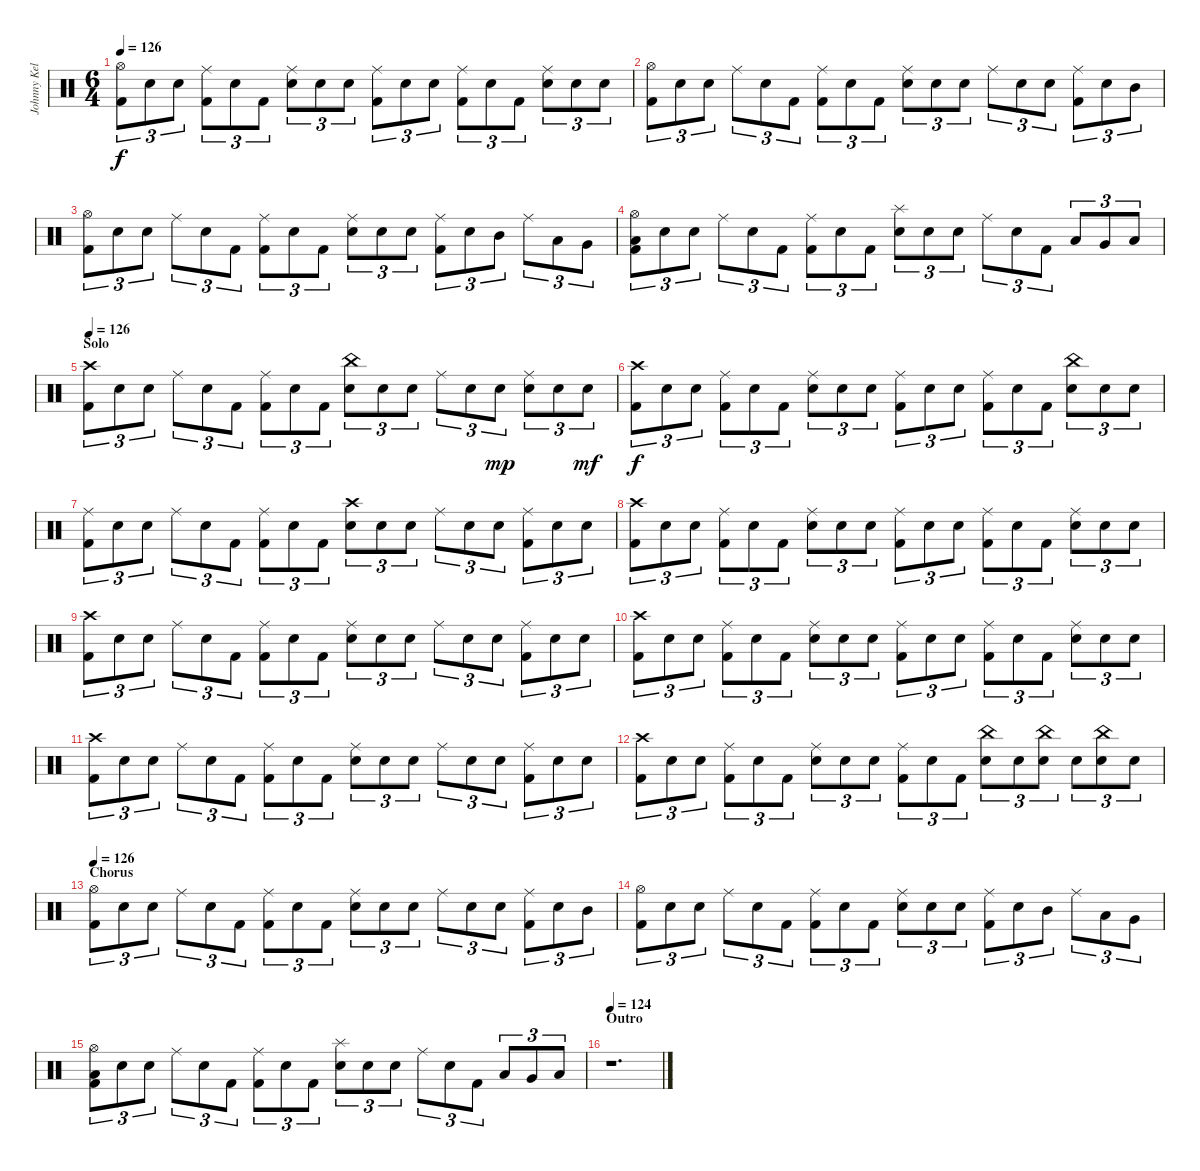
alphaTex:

\track ("Johnny Kelly - Drums" "Johnny Kel") {instrument percussion}
\staff {score}
\articulation defaults
\ts (6 4)
\tempo 126
\clef neutral
\ks c
("Hi-Hat (open)" "Kick (hit) 2").8{tu (3 2) dy f} "Snare (hit)".8{tu (3 2)} "Electric Snare (hit)".8{tu (3 2)} ("Ride (middle)" "Kick (hit) 2").8{tu (3 2)} "Snare (hit)".8{tu (3 2)} "Kick (hit) 2".8{tu (3 2)} ("Ride (middle)" "Electric Snare (hit)").8{tu (3 2)} "Snare (hit)".8{tu (3 2)} "Electric Snare (hit)".8{tu (3 2)} ("Ride (middle)" "Kick (hit) 2").8{tu (3 2)} "Snare (hit)".8{tu (3 2)} "Electric Snare (hit)".8{tu (3 2)} ("Ride (middle)" "Kick (hit) 2").8{tu (3 2)} "Snare (hit)".8{tu (3 2)} "Kick (hit) 2".8{tu (3 2)} ("Ride (middle)" "Electric Snare (hit)").8{tu (3 2)} "Snare (hit)".8{tu (3 2)} "Electric Snare (hit)".8{tu (3 2)} |
("Hi-Hat (open)" "Kick (hit) 2").8{tu (3 2)} "Snare (hit)".8{tu (3 2)} "Snare (hit)".8{tu (3 2)} "Ride (middle)".8{tu (3 2)} "Snare (hit)".8{tu (3 2)} "Kick (hit) 2".8{tu (3 2)} ("Ride (middle)" "Kick (hit) 2").8{tu (3 2)} "Snare (hit)".8{tu (3 2)} "Kick (hit) 2".8{tu (3 2)} ("Ride (middle)" "Electric Snare (hit)").8{tu (3 2)} "Snare (hit)".8{tu (3 2)} "Snare (hit)".8{tu (3 2)} "Ride (middle)".8{tu (3 2)} "Snare (hit)".8{tu (3 2)} "Electric Snare (hit)".8{tu (3 2)} ("Ride (middle)" "Kick (hit) 2").8{tu (3 2)} "Snare (hit)".8{tu (3 2)} "Mid Tom (hit)".8{tu (3 2)} |
("Hi-Hat (open)" "Kick (hit) 2").8{tu (3 2)} "Snare (hit)".8{tu (3 2)} "Snare (hit)".8{tu (3 2)} "Ride (middle)".8{tu (3 2)} "Snare (hit)".8{tu (3 2)} "Kick (hit) 2".8{tu (3 2)} ("Ride (middle)" "Kick (hit) 2").8{tu (3 2)} "Snare (hit)".8{tu (3 2)} "Kick (hit) 2".8{tu (3 2)} ("Ride (middle)" "Electric Snare (hit)").8{tu (3 2)} "Snare (hit)".8{tu (3 2)} "Electric Snare (hit)".8{tu (3 2)} ("Ride (middle)" "Kick (hit) 2").8{tu (3 2)} "Snare (hit)".8{tu (3 2)} "Mid Tom (hit)".8{tu (3 2)} "Ride (middle)".8{tu (3 2)} "Low Tom (hit)".8{tu (3 2)} "Very Low Tom (hit)".8{tu (3 2)} |
("Hi-Hat (open)" "Low Floor Tom (hit)" "Kick (hit) 2").8{tu (3 2)} "Snare (hit)".8{tu (3 2)} "Snare (hit)".8{tu (3 2)} "Ride (middle)".8{tu (3 2)} "Snare (hit)".8{tu (3 2)} "Kick (hit) 2".8{tu (3 2)} ("Ride (middle)" "Kick (hit) 2").8{tu (3 2)} "Snare (hit)".8{tu (3 2)} "Kick (hit) 2".8{tu (3 2)} ("Splash (hit)" "Electric Snare (hit)").8{tu (3 2)} "Snare (hit)".8{tu (3 2)} "Snare (hit)".8{tu (3 2)} "Ride (middle)".8{tu (3 2)} "Electric Snare (hit)".8{tu (3 2)} "Kick (hit) 2".8{tu (3 2)} "Low Tom (hit)".8{tu (3 2)} "Very Low Tom (hit)".8{tu (3 2)} "Low Floor Tom (hit)".8{tu (3 2)} |
\section ("" "Solo")
\tempo 126
("Crash high (hit)" "Kick (hit) 2").8{tu (3 2) volume 16 balance 8} "Snare (hit)".8{tu (3 2)} "Snare (hit)".8{tu (3 2)} "Ride (middle)".8{tu (3 2)} "Snare (hit)".8{tu (3 2)} "Kick (hit) 2".8{tu (3 2)} ("Ride (middle)" "Kick (hit) 2").8{tu (3 2)} "Snare (hit)".8{tu (3 2)} "Kick (hit) 2".8{tu (3 2)} ("China (hit)" "Electric Snare (hit)").8{tu (3 2)} "Snare (hit)".8{tu (3 2)} "Snare (hit)".8{tu (3 2)} "Ride (middle)".8{tu (3 2)} "Snare (hit)".8{tu (3 2)} "Electric Snare (hit)".8{tu (3 2) dy mp} ("Ride (middle)" "Electric Snare (hit)").8{tu (3 2)} "Electric Snare (hit)".8{tu (3 2)} "Electric Snare (hit)".8{tu (3 2) dy mf} |
("Crash high (hit)" "Kick (hit) 2").8{tu (3 2) dy f} "Snare (hit)".8{tu (3 2)} "Electric Snare (hit)".8{tu (3 2)} ("Ride (middle)" "Kick (hit) 2").8{tu (3 2)} "Snare (hit)".8{tu (3 2)} "Kick (hit) 2".8{tu (3 2)} ("Ride (middle)" "Electric Snare (hit)").8{tu (3 2)} "Snare (hit)".8{tu (3 2)} "Electric Snare (hit)".8{tu (3 2)} ("Ride (middle)" "Kick (hit) 2").8{tu (3 2)} "Snare (hit)".8{tu (3 2)} "Electric Snare (hit)".8{tu (3 2)} ("Ride (middle)" "Kick (hit) 2").8{tu (3 2)} "Snare (hit)".8{tu (3 2)} "Kick (hit) 2".8{tu (3 2)} ("China (hit)" "Electric Snare (hit)").8{tu (3 2)} "Snare (hit)".8{tu (3 2)} "Electric Snare (hit)".8{tu (3 2)} |
("Ride (middle)" "Kick (hit) 2").8{tu (3 2)} "Snare (hit)".8{tu (3 2)} "Snare (hit)".8{tu (3 2)} "Ride (middle)".8{tu (3 2)} "Snare (hit)".8{tu (3 2)} "Kick (hit) 2".8{tu (3 2)} ("Ride (middle)" "Kick (hit) 2").8{tu (3 2)} "Snare (hit)".8{tu (3 2)} "Kick (hit) 2".8{tu (3 2)} ("Crash high (hit)" "Electric Snare (hit)").8{tu (3 2)} "Snare (hit)".8{tu (3 2)} "Snare (hit)".8{tu (3 2)} "Ride (middle)".8{tu (3 2)} "Snare (hit)".8{tu (3 2)} "Electric Snare (hit)".8{tu (3 2)} ("Ride (middle)" "Kick (hit) 2").8{tu (3 2)} "Snare (hit)".8{tu (3 2)} "Electric Snare (hit)".8{tu (3 2)} |
("Crash high (hit)" "Kick (hit) 2").8{tu (3 2)} "Snare (hit)".8{tu (3 2)} "Electric Snare (hit)".8{tu (3 2)} ("Ride (middle)" "Kick (hit) 2").8{tu (3 2)} "Snare (hit)".8{tu (3 2)} "Kick (hit) 2".8{tu (3 2)} ("Ride (middle)" "Electric Snare (hit)").8{tu (3 2)} "Snare (hit)".8{tu (3 2)} "Electric Snare (hit)".8{tu (3 2)} ("Ride (middle)" "Kick (hit) 2").8{tu (3 2)} "Snare (hit)".8{tu (3 2)} "Electric Snare (hit)".8{tu (3 2)} ("Ride (middle)" "Kick (hit) 2").8{tu (3 2)} "Snare (hit)".8{tu (3 2)} "Kick (hit) 2".8{tu (3 2)} ("Ride (middle)" "Electric Snare (hit)").8{tu (3 2)} "Snare (hit)".8{tu (3 2)} "Electric Snare (hit)".8{tu (3 2)} |
("Crash high (hit)" "Kick (hit) 2").8{tu (3 2)} "Snare (hit)".8{tu (3 2)} "Snare (hit)".8{tu (3 2)} "Ride (middle)".8{tu (3 2)} "Snare (hit)".8{tu (3 2)} "Kick (hit) 2".8{tu (3 2)} ("Ride (middle)" "Kick (hit) 2").8{tu (3 2)} "Snare (hit)".8{tu (3 2)} "Kick (hit) 2".8{tu (3 2)} ("Ride (middle)" "Electric Snare (hit)").8{tu (3 2)} "Snare (hit)".8{tu (3 2)} "Snare (hit)".8{tu (3 2)} "Ride (middle)".8{tu (3 2)} "Snare (hit)".8{tu (3 2)} "Electric Snare (hit)".8{tu (3 2)} ("Ride (middle)" "Kick (hit) 2").8{tu (3 2)} "Snare (hit)".8{tu (3 2)} "Electric Snare (hit)".8{tu (3 2)} |
("Crash high (hit)" "Kick (hit) 2").8{tu (3 2)} "Snare (hit)".8{tu (3 2)} "Electric Snare (hit)".8{tu (3 2)} ("Ride (middle)" "Kick (hit) 2").8{tu (3 2)} "Snare (hit)".8{tu (3 2)} "Kick (hit) 2".8{tu (3 2)} ("Ride (middle)" "Electric Snare (hit)").8{tu (3 2)} "Snare (hit)".8{tu (3 2)} "Electric Snare (hit)".8{tu (3 2)} ("Ride (middle)" "Kick (hit) 2").8{tu (3 2)} "Snare (hit)".8{tu (3 2)} "Electric Snare (hit)".8{tu (3 2)} ("Ride (middle)" "Kick (hit) 2").8{tu (3 2)} "Snare (hit)".8{tu (3 2)} "Kick (hit) 2".8{tu (3 2)} ("Ride (middle)" "Electric Snare (hit)").8{tu (3 2)} "Snare (hit)".8{tu (3 2)} "Electric Snare (hit)".8{tu (3 2)} |
("Crash high (hit)" "Kick (hit) 2").8{tu (3 2)} "Snare (hit)".8{tu (3 2)} "Snare (hit)".8{tu (3 2)} "Ride (middle)".8{tu (3 2)} "Snare (hit)".8{tu (3 2)} "Kick (hit) 2".8{tu (3 2)} ("Ride (middle)" "Kick (hit) 2").8{tu (3 2)} "Snare (hit)".8{tu (3 2)} "Kick (hit) 2".8{tu (3 2)} ("Ride (middle)" "Electric Snare (hit)").8{tu (3 2)} "Snare (hit)".8{tu (3 2)} "Snare (hit)".8{tu (3 2)} "Ride (middle)".8{tu (3 2)} "Snare (hit)".8{tu (3 2)} "Electric Snare (hit)".8{tu (3 2)} ("Ride (middle)" "Kick (hit) 2").8{tu (3 2)} "Snare (hit)".8{tu (3 2)} "Electric Snare (hit)".8{tu (3 2)} |
("Crash high (hit)" "Kick (hit) 2").8{tu (3 2)} "Snare (hit)".8{tu (3 2)} "Electric Snare (hit)".8{tu (3 2)} ("Ride (middle)" "Kick (hit) 2").8{tu (3 2)} "Snare (hit)".8{tu (3 2)} "Kick (hit) 2".8{tu (3 2)} ("Ride (middle)" "Electric Snare (hit)").8{tu (3 2)} "Snare (hit)".8{tu (3 2)} "Electric Snare (hit)".8{tu (3 2)} ("Ride (middle)" "Kick (hit) 2").8{tu (3 2)} "Snare (hit)".8{tu (3 2)} "Kick (hit) 2".8{tu (3 2)} ("China (hit)" "Electric Snare (hit)").8{tu (3 2)} "Snare (hit)".8{tu (3 2)} ("China (hit)" "Electric Snare (hit)").8{tu (3 2)} "Snare (hit)".8{tu (3 2)} ("China (hit)" "Electric Snare (hit)").8{tu (3 2)} "Snare (hit)".8{tu (3 2)} |
\section ("" "Chorus")
\tempo 126
("Hi-Hat (open)" "Kick (hit) 2").8{tu (3 2) volume 16 balance 8} "Snare (hit)".8{tu (3 2)} "Snare (hit)".8{tu (3 2)} "Ride (middle)".8{tu (3 2)} "Snare (hit)".8{tu (3 2)} "Kick (hit) 2".8{tu (3 2)} ("Ride (middle)" "Kick (hit) 2").8{tu (3 2)} "Snare (hit)".8{tu (3 2)} "Kick (hit) 2".8{tu (3 2)} ("Ride (middle)" "Electric Snare (hit)").8{tu (3 2)} "Snare (hit)".8{tu (3 2)} "Snare (hit)".8{tu (3 2)} "Ride (middle)".8{tu (3 2)} "Snare (hit)".8{tu (3 2)} "Electric Snare (hit)".8{tu (3 2)} ("Ride (middle)" "Kick (hit) 2").8{tu (3 2)} "Snare (hit)".8{tu (3 2)} "Mid Tom (hit)".8{tu (3 2)} |
("Hi-Hat (open)" "Kick (hit) 2").8{tu (3 2)} "Snare (hit)".8{tu (3 2)} "Snare (hit)".8{tu (3 2)} "Ride (middle)".8{tu (3 2)} "Snare (hit)".8{tu (3 2)} "Kick (hit) 2".8{tu (3 2)} ("Ride (middle)" "Kick (hit) 2").8{tu (3 2)} "Snare (hit)".8{tu (3 2)} "Kick (hit) 2".8{tu (3 2)} ("Ride (middle)" "Electric Snare (hit)").8{tu (3 2)} "Snare (hit)".8{tu (3 2)} "Electric Snare (hit)".8{tu (3 2)} ("Ride (middle)" "Kick (hit) 2").8{tu (3 2)} "Snare (hit)".8{tu (3 2)} "Mid Tom (hit)".8{tu (3 2)} "Ride (middle)".8{tu (3 2)} "Low Tom (hit)".8{tu (3 2)} "Very Low Tom (hit)".8{tu (3 2)} |
("Hi-Hat (open)" "Low Floor Tom (hit)" "Kick (hit) 2").8{tu (3 2)} "Snare (hit)".8{tu (3 2)} "Snare (hit)".8{tu (3 2)} "Ride (middle)".8{tu (3 2)} "Snare (hit)".8{tu (3 2)} "Kick (hit) 2".8{tu (3 2)} ("Ride (middle)" "Kick (hit) 2").8{tu (3 2)} "Snare (hit)".8{tu (3 2)} "Kick (hit) 2".8{tu (3 2)} ("Splash (hit)" "Electric Snare (hit)").8{tu (3 2)} "Snare (hit)".8{tu (3 2)} "Snare (hit)".8{tu (3 2)} "Ride (middle)".8{tu (3 2)} "Electric Snare (hit)".8{tu (3 2)} "Kick (hit) 2".8{tu (3 2)} "Low Tom (hit)".8{tu (3 2)} "Very Low Tom (hit)".8{tu (3 2)} "Low Floor Tom (hit)".8{tu (3 2)} |
\section ("" "Outro")
\tempo 124
r.1{d volume 16 balance 8}
